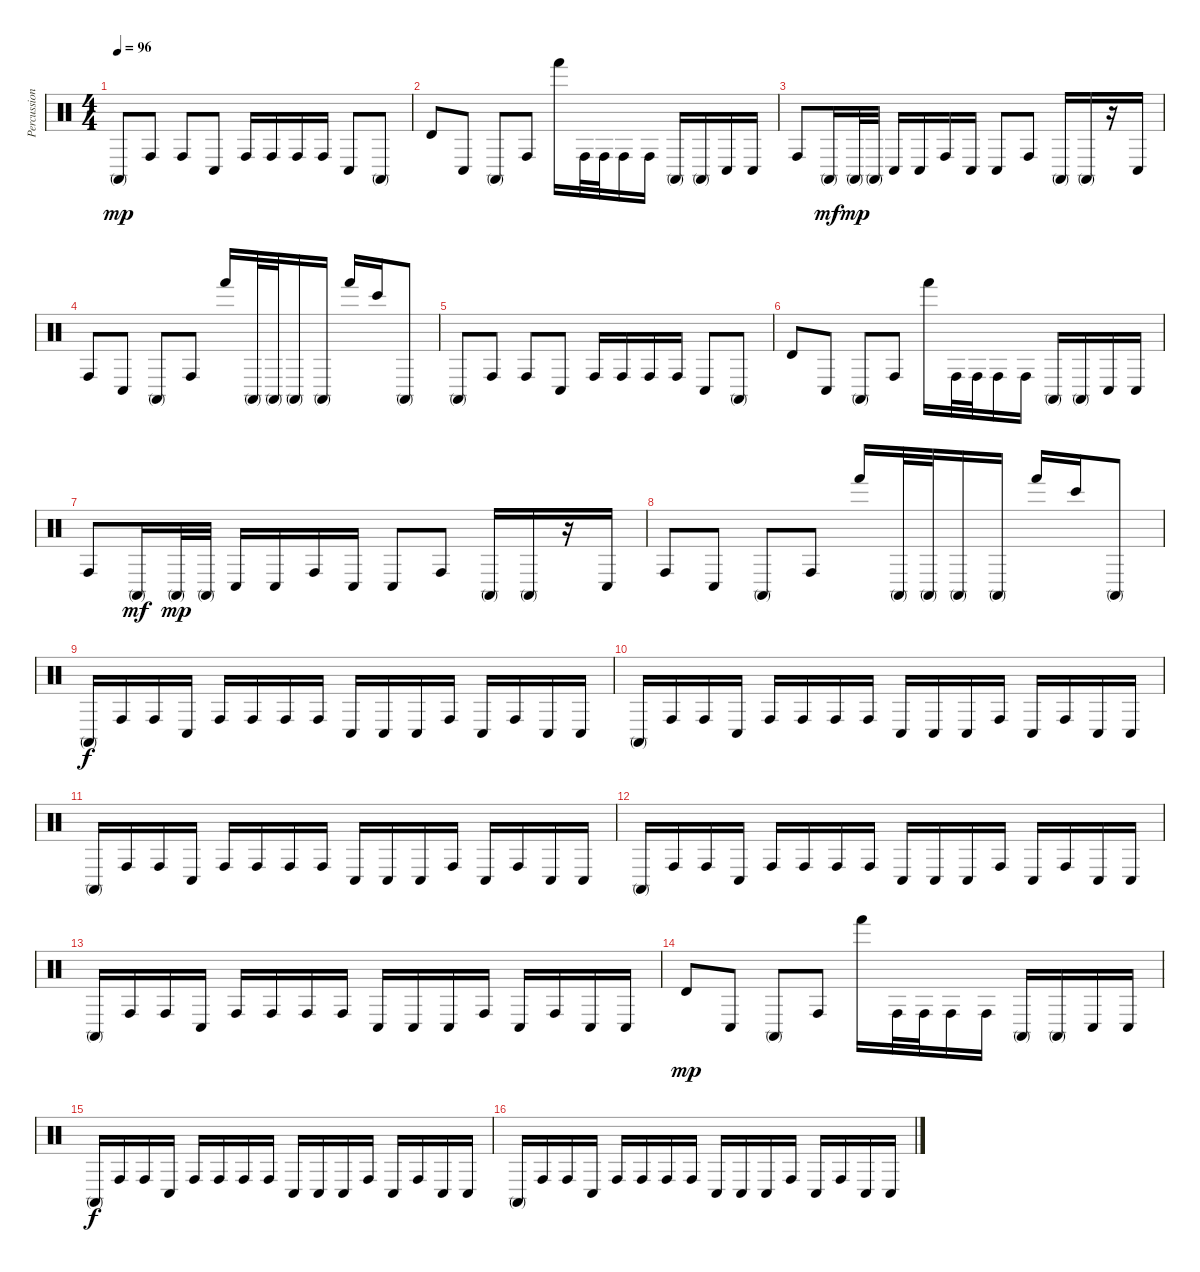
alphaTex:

\track ("Percussions" "Percussion") {instrument percussion}
\staff {score}
\articulation defaults
\ts (4 4)
\tempo 96
\clef neutral
\ks c "Conga high (mute)".8{dy mp} "Conga high (hit)".8 "Conga high (hit)".8 "Conga low (hit)".8 "Conga high (hit)".16 "Conga high (hit)".16 "Conga high (hit)".16 "Conga high (hit)".16 "Conga low (hit)".8 "Conga high (mute)".8
|
"Timbale high (hit)".8 "Conga low (hit)".8 "Conga high (mute)".8 "Conga high (hit)".8 "Hand (hit)".16 "Conga high (hit)".32 "Conga high (hit)".32 "Conga high (hit)".16 "Conga high (hit)".16 "Conga high (mute)".16 "Conga high (mute)".16 "Conga low (hit)".16 "Conga low (hit)".16 |
"Conga high (hit)".8 "Conga high (mute)".16{dy mf} "Conga high (mute)".32{dy mp} "Conga high (mute)".32 "Conga low (hit)".16 "Conga low (hit)".16 "Conga high (hit)".16 "Conga low (hit)".16 "Conga low (hit)".8 "Conga high (hit)".8 "Conga high (mute)".16 "Conga high (mute)".16 r.16 "Conga low (hit)".16 |
"Conga high (hit)".8 "Conga low (hit)".8 "Conga high (mute)".8 "Conga high (hit)".8 "Hand (hit)".16 "Conga high (mute)".32 "Conga high (mute)".32 "Conga high (mute)".16 "Conga high (mute)".16 "Hand (hit)".16 "Bongo High (hit)".16 "Conga high (mute)".8 |
"Conga high (mute)".8 "Conga high (hit)".8 "Conga high (hit)".8 "Conga low (hit)".8 "Conga high (hit)".16 "Conga high (hit)".16 "Conga high (hit)".16 "Conga high (hit)".16 "Conga low (hit)".8 "Conga high (mute)".8 |
"Timbale high (hit)".8 "Conga low (hit)".8 "Conga high (mute)".8 "Conga high (hit)".8 "Hand (hit)".16 "Conga high (hit)".32 "Conga high (hit)".32 "Conga high (hit)".16 "Conga high (hit)".16 "Conga high (mute)".16 "Conga high (mute)".16 "Conga low (hit)".16 "Conga low (hit)".16 |
"Conga high (hit)".8 "Conga high (mute)".16{dy mf} "Conga high (mute)".32{dy mp} "Conga high (mute)".32 "Conga low (hit)".16 "Conga low (hit)".16 "Conga high (hit)".16 "Conga low (hit)".16 "Conga low (hit)".8 "Conga high (hit)".8 "Conga high (mute)".16 "Conga high (mute)".16 r.16 "Conga low (hit)".16 |
"Conga high (hit)".8 "Conga low (hit)".8 "Conga high (mute)".8 "Conga high (hit)".8 "Hand (hit)".16 "Conga high (mute)".32 "Conga high (mute)".32 "Conga high (mute)".16 "Conga high (mute)".16 "Hand (hit)".16 "Bongo High (hit)".16 "Conga high (mute)".8 |
"Conga high (mute)".16{dy f} "Conga high (hit)".16 "Conga high (hit)".16 "Conga low (hit)".16 "Conga high (hit)".16 "Conga high (hit)".16 "Conga high (hit)".16 "Conga high (hit)".16 "Conga low (hit)".16 "Conga low (hit)".16 "Conga low (hit)".16 "Conga high (hit)".16 "Conga low (hit)".16 "Conga high (hit)".16 "Conga low (hit)".16 "Conga low (hit)".16 |
"Conga high (mute)".16 "Conga high (hit)".16 "Conga high (hit)".16 "Conga low (hit)".16 "Conga high (hit)".16 "Conga high (hit)".16 "Conga high (hit)".16 "Conga high (hit)".16 "Conga low (hit)".16 "Conga low (hit)".16 "Conga low (hit)".16 "Conga high (hit)".16 "Conga low (hit)".16 "Conga high (hit)".16 "Conga low (hit)".16 "Conga low (hit)".16 |
"Conga high (mute)".16 "Conga high (hit)".16 "Conga high (hit)".16 "Conga low (hit)".16 "Conga high (hit)".16 "Conga high (hit)".16 "Conga high (hit)".16 "Conga high (hit)".16 "Conga low (hit)".16 "Conga low (hit)".16 "Conga low (hit)".16 "Conga high (hit)".16 "Conga low (hit)".16 "Conga high (hit)".16 "Conga low (hit)".16 "Conga low (hit)".16 |
"Conga high (mute)".16 "Conga high (hit)".16 "Conga high (hit)".16 "Conga low (hit)".16 "Conga high (hit)".16 "Conga high (hit)".16 "Conga high (hit)".16 "Conga high (hit)".16 "Conga low (hit)".16 "Conga low (hit)".16 "Conga low (hit)".16 "Conga high (hit)".16 "Conga low (hit)".16 "Conga high (hit)".16 "Conga low (hit)".16 "Conga low (hit)".16 |
"Conga high (mute)".16 "Conga high (hit)".16 "Conga high (hit)".16 "Conga low (hit)".16 "Conga high (hit)".16 "Conga high (hit)".16 "Conga high (hit)".16 "Conga high (hit)".16 "Conga low (hit)".16 "Conga low (hit)".16 "Conga low (hit)".16 "Conga high (hit)".16 "Conga low (hit)".16 "Conga high (hit)".16 "Conga low (hit)".16 "Conga low (hit)".16 |
"Timbale high (hit)".8{dy mp} "Conga low (hit)".8 "Conga high (mute)".8 "Conga high (hit)".8 "Hand (hit)".16 "Conga high (hit)".32 "Conga high (hit)".32 "Conga high (hit)".16 "Conga high (hit)".16 "Conga high (mute)".16 "Conga high (mute)".16 "Conga low (hit)".16 "Conga low (hit)".16 |
"Conga high (mute)".16{dy f} "Conga high (hit)".16 "Conga high (hit)".16 "Conga low (hit)".16 "Conga high (hit)".16 "Conga high (hit)".16 "Conga high (hit)".16 "Conga high (hit)".16 "Conga low (hit)".16 "Conga low (hit)".16 "Conga low (hit)".16 "Conga high (hit)".16 "Conga low (hit)".16 "Conga high (hit)".16 "Conga low (hit)".16 "Conga low (hit)".16 |
"Conga high (mute)".16 "Conga high (hit)".16 "Conga high (hit)".16 "Conga low (hit)".16 "Conga high (hit)".16 "Conga high (hit)".16 "Conga high (hit)".16 "Conga high (hit)".16 "Conga low (hit)".16 "Conga low (hit)".16 "Conga low (hit)".16 "Conga high (hit)".16 "Conga low (hit)".16 "Conga high (hit)".16 "Conga low (hit)".16 "Conga low (hit)".16
